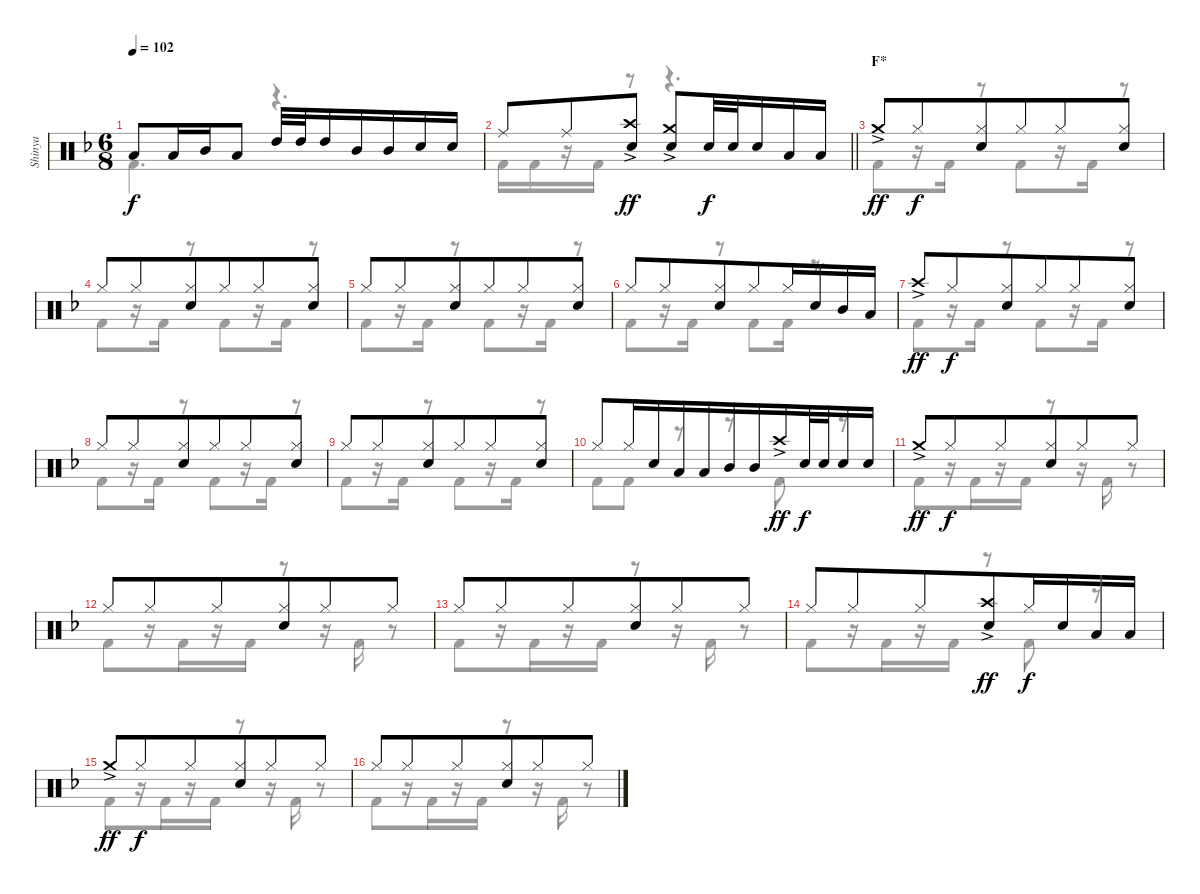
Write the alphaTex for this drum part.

\track ("Shinya" "Shinya") {mute instrument percussion}
\staff {score}
\articulation defaults
\voice
\ts (6 8)
\tempo 102
\clef neutral
\ks f "Low Tom (hit)".8{dy f} "Low Tom (hit)".16 "Mid Tom (hit)".16{beam merge} "Low Tom (hit)".8 "High Tom (hit)".32{beam merge} "High Tom (hit)".32 "High Tom (hit)".16 "Mid Tom (hit)".16{beam merge} "Mid Tom (hit)".16 "Snare (hit) 2".16 "Snare (hit) 2".16
|
\barLineRight lightlight "Ride (middle)".8 "Ride (middle)".8{beam merge}
("Crash high (hit)"{ac} "Snare (hit) 2").8{dy ff} ("Crash medium (hit)"{ac} "Snare (hit) 2").8{beam merge} "Snare (hit) 2".32{dy f beam merge} "Snare (hit) 2".32 "Snare (hit) 2".16 "Low Tom (hit)".16{beam merge} "Low Tom (hit)".16 |
\section ("" "F*")
"Crash medium (hit)"{ac}.8{dy ff} "Hi-Hat (closed)".8{dy f} ("Hi-Hat (closed)" "Snare (hit) 2").8{beam merge} "Hi-Hat (closed)".8{beam merge} "Hi-Hat (closed)".8 ("Hi-Hat (closed)" "Snare (hit) 2").8 |
"Hi-Hat (closed)".8 "Hi-Hat (closed)".8 ("Hi-Hat (closed)" "Snare (hit) 2").8{beam merge} "Hi-Hat (closed)".8{beam merge} "Hi-Hat (closed)".8 ("Hi-Hat (closed)" "Snare (hit) 2").8 |
"Hi-Hat (closed)".8 "Hi-Hat (closed)".8 ("Hi-Hat (closed)" "Snare (hit) 2").8{beam merge} "Hi-Hat (closed)".8{beam merge} "Hi-Hat (closed)".8 ("Hi-Hat (closed)" "Snare (hit) 2").8 |
"Hi-Hat (closed)".8 "Hi-Hat (closed)".8 ("Hi-Hat (closed)" "Snare (hit) 2").8{beam merge} "Hi-Hat (closed)".8{beam merge} "Hi-Hat (closed)".16 "Snare (hit) 2".16 "Mid Tom (hit)".16 "Low Tom (hit)".16 |
"Crash high (hit)"{ac}.8{dy ff} "Hi-Hat (closed)".8{dy f} ("Hi-Hat (closed)" "Snare (hit) 2").8{beam merge} "Hi-Hat (closed)".8{beam merge} "Hi-Hat (closed)".8 ("Hi-Hat (closed)" "Snare (hit) 2").8 |
"Hi-Hat (closed)".8 "Hi-Hat (closed)".8 ("Hi-Hat (closed)" "Snare (hit) 2").8{beam merge} "Hi-Hat (closed)".8{beam merge} "Hi-Hat (closed)".8 ("Hi-Hat (closed)" "Snare (hit) 2").8 |
"Hi-Hat (closed)".8 "Hi-Hat (closed)".8 ("Hi-Hat (closed)" "Snare (hit) 2").8{beam merge} "Hi-Hat (closed)".8{beam merge} "Hi-Hat (closed)".8 ("Hi-Hat (closed)" "Snare (hit) 2").8 |
"Hi-Hat (closed)".8 "Hi-Hat (closed)".16 "Snare (hit) 2".16 "Low Tom (hit)".16 "Low Tom (hit)".16{beam merge} "Mid Tom (hit)".16{beam merge} "Mid Tom (hit)".16 "Crash high (hit)"{ac}.16{dy ff} "Snare (hit) 2".32{dy f beam merge} "Snare (hit) 2".32{beam merge} "Snare (hit) 2".16 "Snare (hit) 2".16 |
"Crash medium (hit)"{ac}.8{dy ff} "Hi-Hat (closed)".8{dy f} "Hi-Hat (closed)".8{beam merge} ("Hi-Hat (closed)" "Snare (hit) 2").8{beam merge} "Hi-Hat (closed)".8 "Hi-Hat (closed)".8 |
"Hi-Hat (closed)".8 "Hi-Hat (closed)".8 "Hi-Hat (closed)".8{beam merge} ("Hi-Hat (closed)" "Snare (hit) 2").8{beam merge} "Hi-Hat (closed)".8 "Hi-Hat (closed)".8 |
"Hi-Hat (closed)".8 "Hi-Hat (closed)".8 "Hi-Hat (closed)".8{beam merge} ("Hi-Hat (closed)" "Snare (hit) 2").8{beam merge} "Hi-Hat (closed)".8 "Hi-Hat (closed)".8 |
"Hi-Hat (closed)".8 "Hi-Hat (closed)".8 "Hi-Hat (closed)".8{beam merge} ("Crash high (hit)"{ac} "Snare (hit) 2").8{dy ff beam merge} "Hi-Hat (closed)".16{dy f} "Snare (hit) 2".16 "Low Tom (hit)".16 "Low Tom (hit)".16 |
"Crash medium (hit)"{ac}.8{dy ff} "Hi-Hat (closed)".8{dy f} "Hi-Hat (closed)".8{beam merge} ("Hi-Hat (closed)" "Snare (hit) 2").8{beam merge} "Hi-Hat (closed)".8 "Hi-Hat (closed)".8 |
"Hi-Hat (closed)".8 "Hi-Hat (closed)".8 "Hi-Hat (closed)".8{beam merge} ("Hi-Hat (closed)" "Snare (hit) 2").8{beam merge} "Hi-Hat (closed)".8 "Hi-Hat (closed)".8
\voice
\clef neutral
\ottava regular
\simile none
\ks f "Kick (hit) 2".4{d dy f}
r.4{d} |
\barLineRight lightlight "Kick (hit) 2".16 "Kick (hit) 2".16{beam merge}
r.16 "Kick (hit) 2".16 r.8 r.4{d} |
"Kick (hit) 2".8 r.16 "Kick (hit) 2".16 r.8 "Kick (hit) 2".8 r.16 "Kick (hit) 2".16 r.8 |
"Kick (hit) 2".8 r.16 "Kick (hit) 2".16 r.8 "Kick (hit) 2".8 r.16 "Kick (hit) 2".16 r.8 |
"Kick (hit) 2".8 r.16 "Kick (hit) 2".16 r.8 "Kick (hit) 2".8 r.16 "Kick (hit) 2".16 r.8 |
"Kick (hit) 2".8 r.16 "Kick (hit) 2".16 r.8 "Kick (hit) 2".8 "Kick (hit) 2".16 r.8{d} |
"Kick (hit) 2".8 r.16 "Kick (hit) 2".16 r.8 "Kick (hit) 2".8 r.16 "Kick (hit) 2".16 r.8 |
"Kick (hit) 2".8 r.16 "Kick (hit) 2".16 r.8 "Kick (hit) 2".8 r.16 "Kick (hit) 2".16 r.8 |
"Kick (hit) 2".8 r.16 "Kick (hit) 2".16 r.8 "Kick (hit) 2".8 r.16 "Kick (hit) 2".16 r.8 |
"Kick (hit) 2".8 "Kick (hit) 2".8 r.8 r.8 "Kick (hit) 2".8 r.8 |
"Kick (hit) 2".8 r.16 "Kick (hit) 2".16{beam merge} r.16 "Kick (hit) 2".16 r.8 r.16 "Kick (hit) 2".16 r.8 |
"Kick (hit) 2".8 r.16 "Kick (hit) 2".16{beam merge} r.16 "Kick (hit) 2".16 r.8 r.16 "Kick (hit) 2".16 r.8 |
"Kick (hit) 2".8 r.16 "Kick (hit) 2".16{beam merge} r.16 "Kick (hit) 2".16 r.8 r.16 "Kick (hit) 2".16 r.8 |
"Kick (hit) 2".8 r.16 "Kick (hit) 2".16{beam merge} r.16 "Kick (hit) 2".16 r.8 "Kick (hit) 2".8 r.8 |
"Kick (hit) 2".8 r.16 "Kick (hit) 2".16{beam merge} r.16 "Kick (hit) 2".16 r.8 r.16 "Kick (hit) 2".16 r.8 |
"Kick (hit) 2".8 r.16 "Kick (hit) 2".16{beam merge} r.16 "Kick (hit) 2".16 r.8 r.16 "Kick (hit) 2".16 r.8
